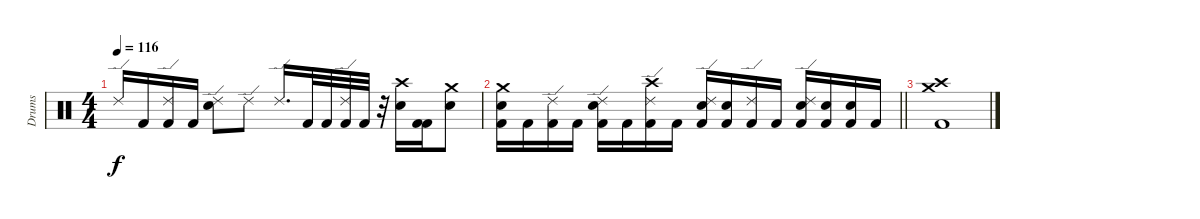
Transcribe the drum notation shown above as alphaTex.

\track ("Drums" "Drums") {instrument percussion}
\staff {score}
\articulation defaults
\ts (4 4)
\tempo 116
\clef neutral
\ks c "Ride (edge) 2".16{dy f} "Kick (hit) 2".16
("Ride (edge) 2" "Kick (hit) 2").16 "Kick (hit) 2".16 ("Ride (edge) 2" "Snare (hit) 2").8 "Ride (edge) 2".8 "Ride (edge) 2".16{d} "Kick (hit) 2".32 "Kick (hit) 2".32 ("Ride (edge) 2" "Kick (hit) 2").32 "Kick (hit) 2".32 r.32 ("Snare (hit) 2" "Crash high (hit)").16 ("Kick (hit) 2" "Kick (hit) 2").16 ("Snare (hit) 2" "Crash medium (hit)").8 |
\barLineRight lightlight
("Kick (hit) 2" "Snare (hit) 2" "Crash medium (hit)").16 "Kick (hit) 2".16 ("Ride (edge) 2" "Kick (hit) 2").16 "Kick (hit) 2".16 ("Ride (edge) 2" "Kick (hit) 2" "Snare (hit) 2").16 "Kick (hit) 2".16 ("Ride (edge) 2" "Kick (hit) 2" "Crash high (hit)").16 "Kick (hit) 2".16 ("Ride (edge) 2" "Kick (hit) 2" "Snare (hit) 2").16 ("Kick (hit) 2" "Snare (hit) 2").16 ("Ride (edge) 2" "Kick (hit) 2").16 "Kick (hit) 2".16 ("Ride (edge) 2" "Kick (hit) 2" "Snare (hit) 2").16 ("Kick (hit) 2" "Snare (hit) 2").16 ("Kick (hit) 2" "Snare (hit) 2").16 "Kick (hit) 2".16 |
("Kick (hit) 2" "Crash high (hit)" "Crash medium (hit)").1
